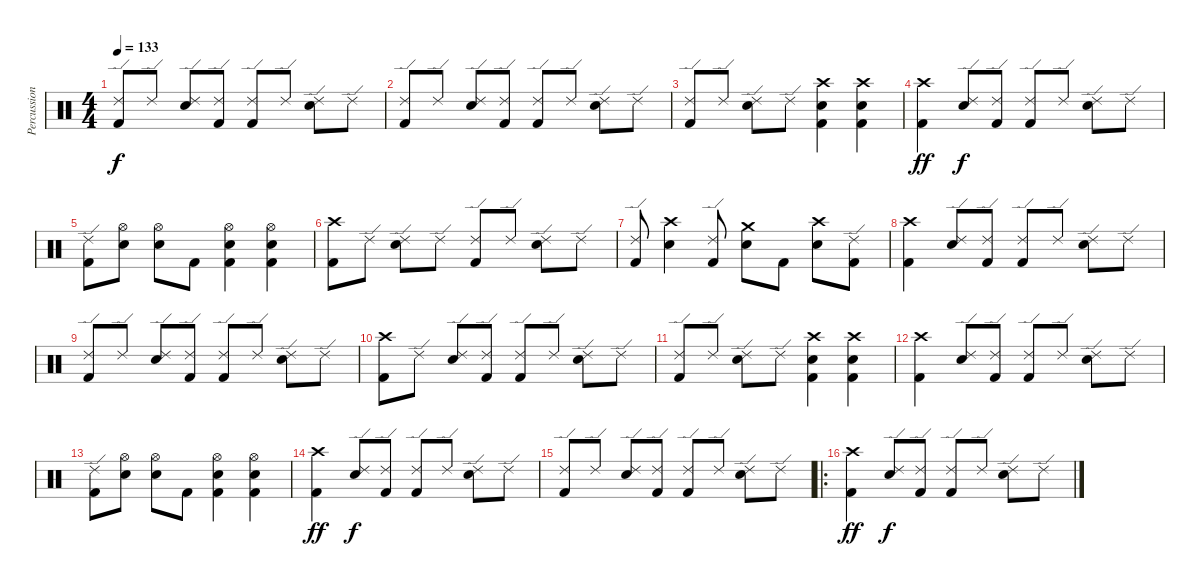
\track ("Percussion" "Percussion") {instrument percussion}
\staff {score}
\articulation defaults
\ts (4 4)
\tempo 133
\clef neutral
\ks c
("Ride (edge) 2" "Kick (hit) 2").8{dy f} "Ride (edge) 2".8 ("Ride (edge) 2" "Snare (hit) 2").8 ("Ride (edge) 2" "Kick (hit) 2").8 ("Ride (edge) 2" "Kick (hit) 2").8 "Ride (edge) 2".8 ("Ride (edge) 2" "Snare (hit) 2").8 "Ride (edge) 2".8 |
("Ride (edge) 2" "Kick (hit) 2").8 "Ride (edge) 2".8 ("Ride (edge) 2" "Snare (hit) 2").8 ("Ride (edge) 2" "Kick (hit) 2").8 ("Ride (edge) 2" "Kick (hit) 2").8 "Ride (edge) 2".8 ("Ride (edge) 2" "Snare (hit) 2").8 "Ride (edge) 2".8 |
("Ride (edge) 2" "Kick (hit) 2").8 "Ride (edge) 2".8 ("Ride (edge) 2" "Snare (hit) 2").8 "Ride (edge) 2".8 ("Crash high (hit)" "Snare (hit) 2" "Kick (hit) 2").4 ("Crash high (hit)" "Snare (hit) 2" "Kick (hit) 2").4 |
("Crash high (hit)" "Kick (hit) 2").4{dy ff} ("Ride (edge) 2" "Snare (hit) 2").8{dy f} ("Ride (edge) 2" "Kick (hit) 2").8 ("Ride (edge) 2" "Kick (hit) 2").8 "Ride (edge) 2".8 ("Ride (edge) 2" "Snare (hit) 2").8 "Ride (edge) 2".8 |
("Ride (edge) 2" "Kick (hit) 2").8 ("Hi-Hat (open)" "Snare (hit) 2").8 ("Hi-Hat (open)" "Snare (hit) 2").8 "Kick (hit) 2".8 ("Hi-Hat (open)" "Snare (hit) 2" "Kick (hit) 2").4 ("Hi-Hat (open)" "Snare (hit) 2" "Kick (hit) 2").4 |
("Crash high (hit)" "Kick (hit) 2").8 "Ride (edge) 2".8 ("Ride (edge) 2" "Snare (hit) 2").8 "Ride (edge) 2".8 ("Ride (edge) 2" "Kick (hit) 2").8 "Ride (edge) 2".8 ("Ride (edge) 2" "Snare (hit) 2").8 "Ride (edge) 2".8 |
("Ride (edge) 2" "Kick (hit) 2").8 ("Crash high (hit)" "Snare (hit) 2").4 ("Ride (edge) 2" "Kick (hit) 2").8 ("Crash medium (hit)" "Snare (hit) 2").8 "Kick (hit) 2".8 ("Crash high (hit)" "Snare (hit) 2").8 ("Ride (edge) 2" "Kick (hit) 2").8 |
("Crash high (hit)" "Kick (hit) 2").4 ("Ride (edge) 2" "Snare (hit) 2").8 ("Ride (edge) 2" "Kick (hit) 2").8 ("Ride (edge) 2" "Kick (hit) 2").8 "Ride (edge) 2".8 ("Ride (edge) 2" "Snare (hit) 2").8 "Ride (edge) 2".8 |
("Ride (edge) 2" "Kick (hit) 2").8 "Ride (edge) 2".8 ("Ride (edge) 2" "Snare (hit) 2").8 ("Ride (edge) 2" "Kick (hit) 2").8 ("Ride (edge) 2" "Kick (hit) 2").8 "Ride (edge) 2".8 ("Ride (edge) 2" "Snare (hit) 2").8 "Ride (edge) 2".8 |
("Crash high (hit)" "Kick (hit) 2").8 "Ride (edge) 2".8 ("Ride (edge) 2" "Snare (hit) 2").8 ("Ride (edge) 2" "Kick (hit) 2").8 ("Ride (edge) 2" "Kick (hit) 2").8 "Ride (edge) 2".8 ("Ride (edge) 2" "Snare (hit) 2").8 "Ride (edge) 2".8 |
("Ride (edge) 2" "Kick (hit) 2").8 "Ride (edge) 2".8 ("Ride (edge) 2" "Snare (hit) 2").8 "Ride (edge) 2".8 ("Crash high (hit)" "Snare (hit) 2" "Kick (hit) 2").4 ("Crash high (hit)" "Snare (hit) 2" "Kick (hit) 2").4 |
("Crash high (hit)" "Kick (hit) 2").4 ("Ride (edge) 2" "Snare (hit) 2").8 ("Ride (edge) 2" "Kick (hit) 2").8 ("Ride (edge) 2" "Kick (hit) 2").8 "Ride (edge) 2".8 ("Ride (edge) 2" "Snare (hit) 2").8 "Ride (edge) 2".8 |
("Ride (edge) 2" "Kick (hit) 2").8 ("Hi-Hat (open)" "Snare (hit) 2").8 ("Hi-Hat (open)" "Snare (hit) 2").8 "Kick (hit) 2".8 ("Hi-Hat (open)" "Snare (hit) 2" "Kick (hit) 2").4 ("Hi-Hat (open)" "Snare (hit) 2" "Kick (hit) 2").4 |
("Crash high (hit)" "Kick (hit) 2").4{dy ff} ("Ride (edge) 2" "Snare (hit) 2").8{dy f} ("Ride (edge) 2" "Kick (hit) 2").8 ("Ride (edge) 2" "Kick (hit) 2").8 "Ride (edge) 2".8 ("Ride (edge) 2" "Snare (hit) 2").8 "Ride (edge) 2".8 |
("Ride (edge) 2" "Kick (hit) 2").8 "Ride (edge) 2".8 ("Ride (edge) 2" "Snare (hit) 2").8 ("Ride (edge) 2" "Kick (hit) 2").8 ("Ride (edge) 2" "Kick (hit) 2").8 "Ride (edge) 2".8 ("Ride (edge) 2" "Snare (hit) 2").8 "Ride (edge) 2".8 |
\ro
("Crash high (hit)" "Kick (hit) 2").4{dy ff} ("Ride (edge) 2" "Snare (hit) 2").8{dy f} ("Ride (edge) 2" "Kick (hit) 2").8 ("Ride (edge) 2" "Kick (hit) 2").8 "Ride (edge) 2".8 ("Ride (edge) 2" "Snare (hit) 2").8 "Ride (edge) 2".8
